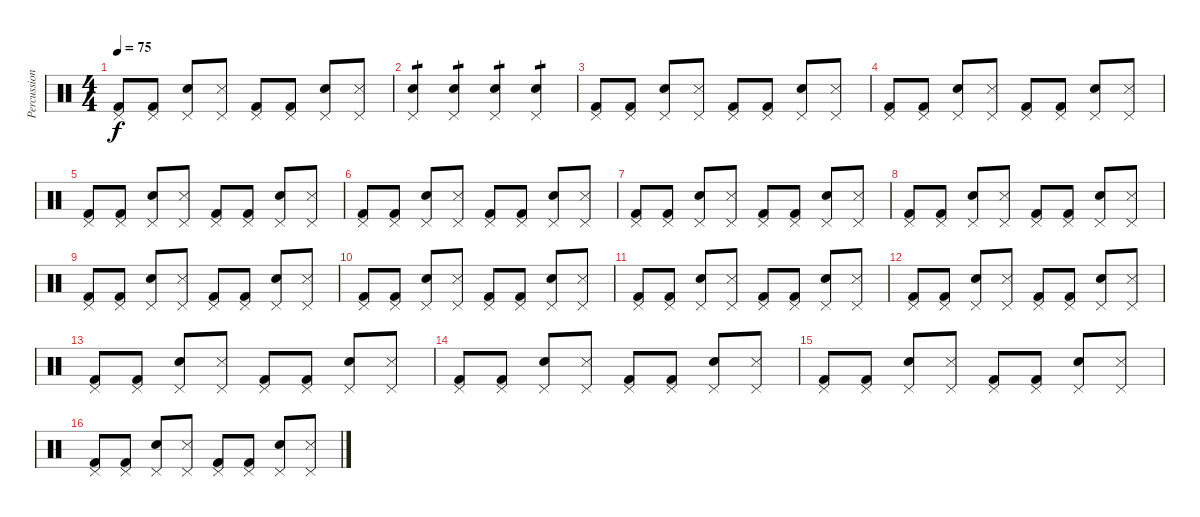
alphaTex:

\track ("Percussions" "Percussion") {instrument percussion}
\staff {score}
\articulation defaults
\ts (4 4)
\tempo 75
\clef neutral
\ks c
("Kick (hit) 2" "Pedal Hi-Hat (hit)").8{dy f} ("Kick (hit) 2" "Pedal Hi-Hat (hit)").8 ("Snare (hit) 2" "Pedal Hi-Hat (hit)").8 ("Snare (side stick) 3" "Pedal Hi-Hat (hit)").8 ("Kick (hit) 2" "Pedal Hi-Hat (hit)").8 ("Kick (hit) 2" "Pedal Hi-Hat (hit)").8 ("Snare (hit) 2" "Pedal Hi-Hat (hit)").8 ("Snare (side stick) 3" "Pedal Hi-Hat (hit)").8 |
("Snare (hit) 2" "Pedal Hi-Hat (hit)").4{tp 1} ("Snare (hit) 2" "Pedal Hi-Hat (hit)").4{tp 1} ("Snare (hit) 2" "Pedal Hi-Hat (hit)").4{tp 1} ("Snare (hit) 2" "Pedal Hi-Hat (hit)").4{tp 1} |
("Kick (hit) 2" "Pedal Hi-Hat (hit)").8 ("Kick (hit) 2" "Pedal Hi-Hat (hit)").8 ("Snare (hit) 2" "Pedal Hi-Hat (hit)").8 ("Snare (side stick) 3" "Pedal Hi-Hat (hit)").8 ("Kick (hit) 2" "Pedal Hi-Hat (hit)").8 ("Kick (hit) 2" "Pedal Hi-Hat (hit)").8 ("Snare (hit) 2" "Pedal Hi-Hat (hit)").8 ("Snare (side stick) 3" "Pedal Hi-Hat (hit)").8 |
("Kick (hit) 2" "Pedal Hi-Hat (hit)").8 ("Kick (hit) 2" "Pedal Hi-Hat (hit)").8 ("Snare (hit) 2" "Pedal Hi-Hat (hit)").8 ("Snare (side stick) 3" "Pedal Hi-Hat (hit)").8 ("Kick (hit) 2" "Pedal Hi-Hat (hit)").8 ("Kick (hit) 2" "Pedal Hi-Hat (hit)").8 ("Snare (hit) 2" "Pedal Hi-Hat (hit)").8 ("Snare (side stick) 3" "Pedal Hi-Hat (hit)").8 |
("Kick (hit) 2" "Pedal Hi-Hat (hit)").8 ("Kick (hit) 2" "Pedal Hi-Hat (hit)").8 ("Snare (hit) 2" "Pedal Hi-Hat (hit)").8 ("Snare (side stick) 3" "Pedal Hi-Hat (hit)").8 ("Kick (hit) 2" "Pedal Hi-Hat (hit)").8 ("Kick (hit) 2" "Pedal Hi-Hat (hit)").8 ("Snare (hit) 2" "Pedal Hi-Hat (hit)").8 ("Snare (side stick) 3" "Pedal Hi-Hat (hit)").8 |
("Kick (hit) 2" "Pedal Hi-Hat (hit)").8 ("Kick (hit) 2" "Pedal Hi-Hat (hit)").8 ("Snare (hit) 2" "Pedal Hi-Hat (hit)").8 ("Snare (side stick) 3" "Pedal Hi-Hat (hit)").8 ("Kick (hit) 2" "Pedal Hi-Hat (hit)").8 ("Kick (hit) 2" "Pedal Hi-Hat (hit)").8 ("Snare (hit) 2" "Pedal Hi-Hat (hit)").8 ("Snare (side stick) 3" "Pedal Hi-Hat (hit)").8 |
("Kick (hit) 2" "Pedal Hi-Hat (hit)").8 ("Kick (hit) 2" "Pedal Hi-Hat (hit)").8 ("Snare (hit) 2" "Pedal Hi-Hat (hit)").8 ("Snare (side stick) 3" "Pedal Hi-Hat (hit)").8 ("Kick (hit) 2" "Pedal Hi-Hat (hit)").8 ("Kick (hit) 2" "Pedal Hi-Hat (hit)").8 ("Snare (hit) 2" "Pedal Hi-Hat (hit)").8 ("Snare (side stick) 3" "Pedal Hi-Hat (hit)").8 |
("Kick (hit) 2" "Pedal Hi-Hat (hit)").8 ("Kick (hit) 2" "Pedal Hi-Hat (hit)").8 ("Snare (hit) 2" "Pedal Hi-Hat (hit)").8 ("Snare (side stick) 3" "Pedal Hi-Hat (hit)").8 ("Kick (hit) 2" "Pedal Hi-Hat (hit)").8 ("Kick (hit) 2" "Pedal Hi-Hat (hit)").8 ("Snare (hit) 2" "Pedal Hi-Hat (hit)").8 ("Snare (side stick) 3" "Pedal Hi-Hat (hit)").8 |
("Kick (hit) 2" "Pedal Hi-Hat (hit)").8 ("Kick (hit) 2" "Pedal Hi-Hat (hit)").8 ("Snare (hit) 2" "Pedal Hi-Hat (hit)").8 ("Snare (side stick) 3" "Pedal Hi-Hat (hit)").8 ("Kick (hit) 2" "Pedal Hi-Hat (hit)").8 ("Kick (hit) 2" "Pedal Hi-Hat (hit)").8 ("Snare (hit) 2" "Pedal Hi-Hat (hit)").8 ("Snare (side stick) 3" "Pedal Hi-Hat (hit)").8 |
("Kick (hit) 2" "Pedal Hi-Hat (hit)").8 ("Kick (hit) 2" "Pedal Hi-Hat (hit)").8 ("Snare (hit) 2" "Pedal Hi-Hat (hit)").8 ("Snare (side stick) 3" "Pedal Hi-Hat (hit)").8 ("Kick (hit) 2" "Pedal Hi-Hat (hit)").8 ("Kick (hit) 2" "Pedal Hi-Hat (hit)").8 ("Snare (hit) 2" "Pedal Hi-Hat (hit)").8 ("Snare (side stick) 3" "Pedal Hi-Hat (hit)").8 |
("Kick (hit) 2" "Pedal Hi-Hat (hit)").8 ("Kick (hit) 2" "Pedal Hi-Hat (hit)").8 ("Snare (hit) 2" "Pedal Hi-Hat (hit)").8 ("Snare (side stick) 3" "Pedal Hi-Hat (hit)").8 ("Kick (hit) 2" "Pedal Hi-Hat (hit)").8 ("Kick (hit) 2" "Pedal Hi-Hat (hit)").8 ("Snare (hit) 2" "Pedal Hi-Hat (hit)").8 ("Snare (side stick) 3" "Pedal Hi-Hat (hit)").8 |
("Kick (hit) 2" "Pedal Hi-Hat (hit)").8 ("Kick (hit) 2" "Pedal Hi-Hat (hit)").8 ("Snare (hit) 2" "Pedal Hi-Hat (hit)").8 ("Snare (side stick) 3" "Pedal Hi-Hat (hit)").8 ("Kick (hit) 2" "Pedal Hi-Hat (hit)").8 ("Kick (hit) 2" "Pedal Hi-Hat (hit)").8 ("Snare (hit) 2" "Pedal Hi-Hat (hit)").8 ("Snare (side stick) 3" "Pedal Hi-Hat (hit)").8 |
("Kick (hit) 2" "Pedal Hi-Hat (hit)").8 ("Kick (hit) 2" "Pedal Hi-Hat (hit)").8 ("Snare (hit) 2" "Pedal Hi-Hat (hit)").8 ("Snare (side stick) 3" "Pedal Hi-Hat (hit)").8 ("Kick (hit) 2" "Pedal Hi-Hat (hit)").8 ("Kick (hit) 2" "Pedal Hi-Hat (hit)").8 ("Snare (hit) 2" "Pedal Hi-Hat (hit)").8 ("Snare (side stick) 3" "Pedal Hi-Hat (hit)").8 |
("Kick (hit) 2" "Pedal Hi-Hat (hit)").8 ("Kick (hit) 2" "Pedal Hi-Hat (hit)").8 ("Snare (hit) 2" "Pedal Hi-Hat (hit)").8 ("Snare (side stick) 3" "Pedal Hi-Hat (hit)").8 ("Kick (hit) 2" "Pedal Hi-Hat (hit)").8 ("Kick (hit) 2" "Pedal Hi-Hat (hit)").8 ("Snare (hit) 2" "Pedal Hi-Hat (hit)").8 ("Snare (side stick) 3" "Pedal Hi-Hat (hit)").8 |
("Kick (hit) 2" "Pedal Hi-Hat (hit)").8 ("Kick (hit) 2" "Pedal Hi-Hat (hit)").8 ("Snare (hit) 2" "Pedal Hi-Hat (hit)").8 ("Snare (side stick) 3" "Pedal Hi-Hat (hit)").8 ("Kick (hit) 2" "Pedal Hi-Hat (hit)").8 ("Kick (hit) 2" "Pedal Hi-Hat (hit)").8 ("Snare (hit) 2" "Pedal Hi-Hat (hit)").8 ("Snare (side stick) 3" "Pedal Hi-Hat (hit)").8 |
("Kick (hit) 2" "Pedal Hi-Hat (hit)").8 ("Kick (hit) 2" "Pedal Hi-Hat (hit)").8 ("Snare (hit) 2" "Pedal Hi-Hat (hit)").8 ("Snare (side stick) 3" "Pedal Hi-Hat (hit)").8 ("Kick (hit) 2" "Pedal Hi-Hat (hit)").8 ("Kick (hit) 2" "Pedal Hi-Hat (hit)").8 ("Snare (hit) 2" "Pedal Hi-Hat (hit)").8 ("Snare (side stick) 3" "Pedal Hi-Hat (hit)").8
